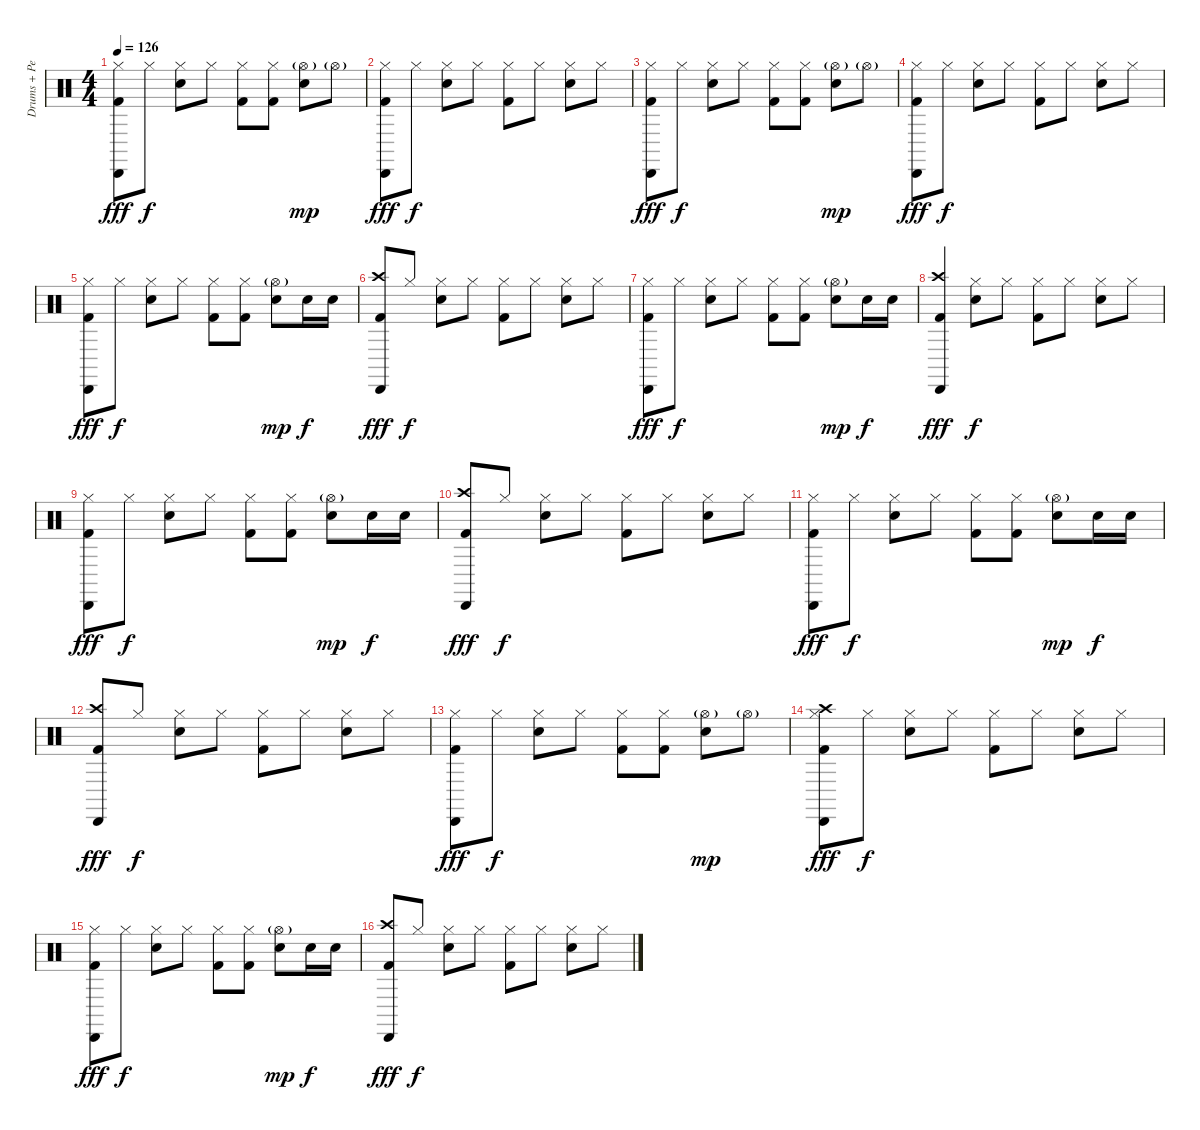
\track ("Drums + Percussions" "Drums + Pe") {instrument percussion}
\staff {score}
\articulation defaults
\ts (4 4)
\tempo 126
\clef neutral
\ks c
("Hi-Hat (closed)" "Cabasa (hit)" "Kick (hit) 2").8{dy fff} "Hi-Hat (closed)".8{dy f} ("Hi-Hat (closed)" "Electric Snare (hit)").8 "Hi-Hat (closed)".8 ("Hi-Hat (closed)" "Kick (hit) 2").8 ("Hi-Hat (closed)" "Kick (hit) 2").8 ("Hi-Hat (open)"{g} "Electric Snare (hit)").8{dy mp} "Hi-Hat (open)"{g}.8 |
("Hi-Hat (closed)" "Cabasa (hit)" "Kick (hit) 2").8{dy fff} "Hi-Hat (closed)".8{dy f} ("Hi-Hat (closed)" "Electric Snare (hit)").8 "Hi-Hat (closed)".8 ("Hi-Hat (closed)" "Kick (hit) 2").8 "Hi-Hat (closed)".8 ("Hi-Hat (closed)" "Electric Snare (hit)").8 "Hi-Hat (closed)".8 |
("Hi-Hat (closed)" "Cabasa (hit)" "Kick (hit) 2").8{dy fff} "Hi-Hat (closed)".8{dy f} ("Hi-Hat (closed)" "Electric Snare (hit)").8 "Hi-Hat (closed)".8 ("Hi-Hat (closed)" "Kick (hit) 2").8 ("Hi-Hat (closed)" "Kick (hit) 2").8 ("Hi-Hat (open)"{g} "Electric Snare (hit)").8{dy mp} "Hi-Hat (open)"{g}.8 |
("Hi-Hat (closed)" "Cabasa (hit)" "Kick (hit) 2").8{dy fff} "Hi-Hat (closed)".8{dy f} ("Hi-Hat (closed)" "Electric Snare (hit)").8 "Hi-Hat (closed)".8 ("Hi-Hat (closed)" "Kick (hit) 2").8 "Hi-Hat (closed)".8 ("Hi-Hat (closed)" "Electric Snare (hit)").8 "Hi-Hat (closed)".8 |
("Hi-Hat (closed)" "Cabasa (hit)" "Kick (hit) 2").8{dy fff} "Hi-Hat (closed)".8{dy f} ("Hi-Hat (closed)" "Electric Snare (hit)").8 "Hi-Hat (closed)".8 ("Hi-Hat (closed)" "Kick (hit) 2").8 ("Hi-Hat (closed)" "Kick (hit) 2").8 ("Hi-Hat (open)"{g} "Electric Snare (hit)").8{dy mp} "Electric Snare (hit)".16{dy f} "Electric Snare (hit)".16 |
("Crash high (hit)" "Cabasa (hit)" "Kick (hit) 2").8{dy fff} "Hi-Hat (closed)".8{dy f} ("Hi-Hat (closed)" "Electric Snare (hit)").8 "Hi-Hat (closed)".8 ("Hi-Hat (closed)" "Kick (hit) 2").8 "Hi-Hat (closed)".8 ("Hi-Hat (closed)" "Electric Snare (hit)").8 "Hi-Hat (closed)".8 |
("Hi-Hat (closed)" "Cabasa (hit)" "Kick (hit) 2").8{dy fff} "Hi-Hat (closed)".8{dy f} ("Hi-Hat (closed)" "Electric Snare (hit)").8 "Hi-Hat (closed)".8 ("Hi-Hat (closed)" "Kick (hit) 2").8 ("Hi-Hat (closed)" "Kick (hit) 2").8 ("Hi-Hat (open)"{g} "Electric Snare (hit)").8{dy mp} "Electric Snare (hit)".16{dy f} "Electric Snare (hit)".16 |
("Crash high (hit)" "Cabasa (hit)" "Kick (hit) 2").4{dy fff} ("Hi-Hat (closed)" "Electric Snare (hit)").8{dy f} "Hi-Hat (closed)".8 ("Hi-Hat (closed)" "Kick (hit) 2").8 "Hi-Hat (closed)".8 ("Hi-Hat (closed)" "Electric Snare (hit)").8 "Hi-Hat (closed)".8 |
("Hi-Hat (closed)" "Cabasa (hit)" "Kick (hit) 2").8{dy fff} "Hi-Hat (closed)".8{dy f} ("Hi-Hat (closed)" "Electric Snare (hit)").8 "Hi-Hat (closed)".8 ("Hi-Hat (closed)" "Kick (hit) 2").8 ("Hi-Hat (closed)" "Kick (hit) 2").8 ("Hi-Hat (open)"{g} "Electric Snare (hit)").8{dy mp} "Electric Snare (hit)".16{dy f} "Electric Snare (hit)".16 |
("Crash high (hit)" "Cabasa (hit)" "Kick (hit) 2").8{dy fff} "Hi-Hat (closed)".8{dy f} ("Hi-Hat (closed)" "Electric Snare (hit)").8 "Hi-Hat (closed)".8 ("Hi-Hat (closed)" "Kick (hit) 2").8 "Hi-Hat (closed)".8 ("Hi-Hat (closed)" "Electric Snare (hit)").8 "Hi-Hat (closed)".8 |
("Hi-Hat (closed)" "Cabasa (hit)" "Kick (hit) 2").8{dy fff} "Hi-Hat (closed)".8{dy f} ("Hi-Hat (closed)" "Electric Snare (hit)").8 "Hi-Hat (closed)".8 ("Hi-Hat (closed)" "Kick (hit) 2").8 ("Hi-Hat (closed)" "Kick (hit) 2").8 ("Hi-Hat (open)"{g} "Electric Snare (hit)").8{dy mp} "Electric Snare (hit)".16{dy f} "Electric Snare (hit)".16 |
("Crash high (hit)" "Cabasa (hit)" "Kick (hit) 2").8{dy fff} "Hi-Hat (closed)".8{dy f} ("Hi-Hat (closed)" "Electric Snare (hit)").8 "Hi-Hat (closed)".8 ("Hi-Hat (closed)" "Kick (hit) 2").8 "Hi-Hat (closed)".8 ("Hi-Hat (closed)" "Electric Snare (hit)").8 "Hi-Hat (closed)".8 |
("Hi-Hat (closed)" "Cabasa (hit)" "Kick (hit) 2").8{dy fff} "Hi-Hat (closed)".8{dy f} ("Hi-Hat (closed)" "Electric Snare (hit)").8 "Hi-Hat (closed)".8 ("Hi-Hat (closed)" "Kick (hit) 2").8 ("Hi-Hat (closed)" "Kick (hit) 2").8 ("Hi-Hat (open)"{g} "Electric Snare (hit)").8{dy mp} "Hi-Hat (open)"{g}.8 |
("Hi-Hat (closed)" "Crash high (hit)" "Cabasa (hit)" "Kick (hit) 2").8{dy fff} "Hi-Hat (closed)".8{dy f} ("Hi-Hat (closed)" "Electric Snare (hit)").8 "Hi-Hat (closed)".8 ("Hi-Hat (closed)" "Kick (hit) 2").8 "Hi-Hat (closed)".8 ("Hi-Hat (closed)" "Electric Snare (hit)").8 "Hi-Hat (closed)".8 |
("Hi-Hat (closed)" "Cabasa (hit)" "Kick (hit) 2").8{dy fff} "Hi-Hat (closed)".8{dy f} ("Hi-Hat (closed)" "Electric Snare (hit)").8 "Hi-Hat (closed)".8 ("Hi-Hat (closed)" "Kick (hit) 2").8 ("Hi-Hat (closed)" "Kick (hit) 2").8 ("Hi-Hat (open)"{g} "Electric Snare (hit)").8{dy mp} "Electric Snare (hit)".16{dy f} "Electric Snare (hit)".16 |
("Crash high (hit)" "Cabasa (hit)" "Kick (hit) 2").8{dy fff} "Hi-Hat (closed)".8{dy f} ("Hi-Hat (closed)" "Electric Snare (hit)").8 "Hi-Hat (closed)".8 ("Hi-Hat (closed)" "Kick (hit) 2").8 "Hi-Hat (closed)".8 ("Hi-Hat (closed)" "Electric Snare (hit)").8 "Hi-Hat (closed)".8
